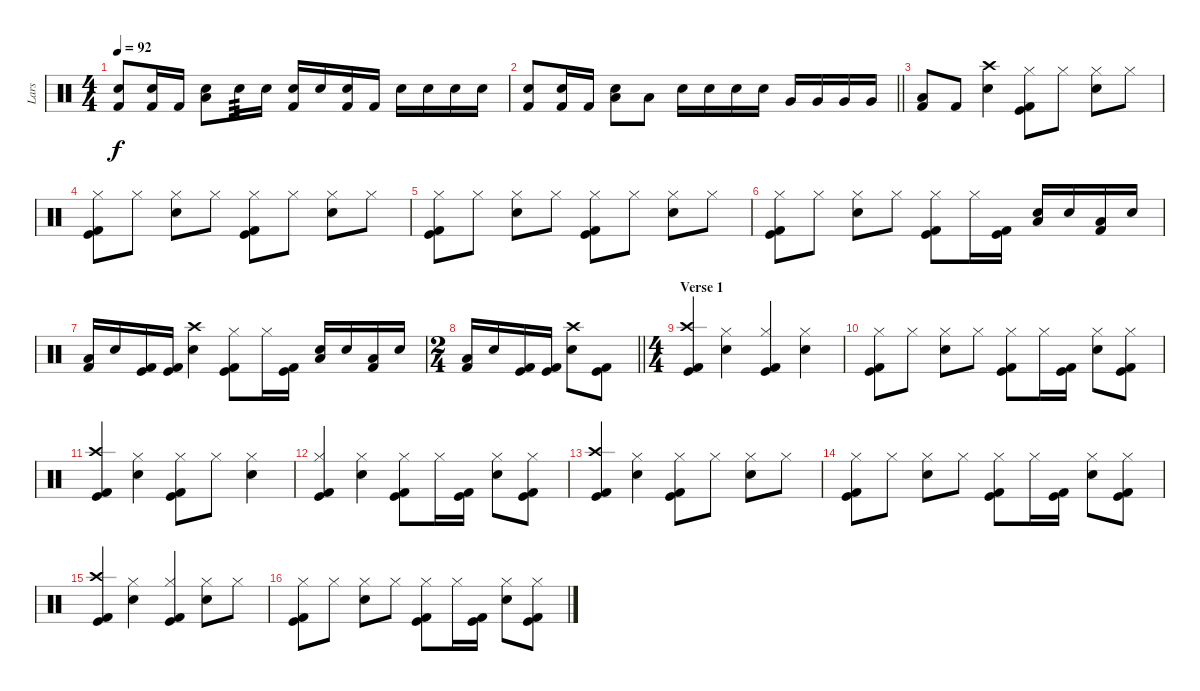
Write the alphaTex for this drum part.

\track ("Lars" "Lars") {instrument percussion}
\staff {score}
\articulation defaults
\ts (4 4)
\tempo 92
\clef neutral
\ks c
("Electric Snare (hit)" "Kick (hit) 2").8{dy f} ("Electric Snare (hit)" "Kick (hit) 2").16 "Kick (hit) 2".16 ("Electric Snare (hit)" "Low Tom (hit)").8 "Electric Snare (hit)".16{tp 3} "Electric Snare (hit)".16 ("Electric Snare (hit)" "Kick (hit) 2").16 "Electric Snare (hit)".16 ("Electric Snare (hit)" "Kick (hit) 2").16 "Kick (hit) 2".16 "Electric Snare (hit)".16 "Electric Snare (hit)".16 "Electric Snare (hit)".16 "Electric Snare (hit)".16 |
\barLineRight lightlight
("Electric Snare (hit)" "Kick (hit) 2").8 ("Electric Snare (hit)" "Kick (hit) 2").16 "Kick (hit) 2".16 ("Electric Snare (hit)" "Low Tom (hit)").8 "Low Tom (hit)".8 "Electric Snare (hit)".16 "Electric Snare (hit)".16 "Electric Snare (hit)".16 "Electric Snare (hit)".16 "Very Low Tom (hit)".16 "Very Low Tom (hit)".16 "Very Low Tom (hit)".16 "Very Low Tom (hit)".16 |
\section ("" "")
("Kick (hit) 2" "Low Tom (hit)").8 "Kick (hit) 2".8 ("Crash high (hit)" "Electric Snare (hit)").4 ("Hi-Hat (closed)" "Kick (hit)" "Kick (hit) 2").8 "Hi-Hat (closed)".8 ("Hi-Hat (closed)" "Electric Snare (hit)").8 "Hi-Hat (closed)".8 |
("Hi-Hat (closed)" "Kick (hit)" "Kick (hit) 2").8 "Hi-Hat (closed)".8 ("Hi-Hat (closed)" "Electric Snare (hit)").8 "Hi-Hat (closed)".8 ("Hi-Hat (closed)" "Kick (hit)" "Kick (hit) 2").8 "Hi-Hat (closed)".8 ("Hi-Hat (closed)" "Electric Snare (hit)").8 "Hi-Hat (closed)".8 |
("Hi-Hat (closed)" "Kick (hit)" "Kick (hit) 2").8 "Hi-Hat (closed)".8 ("Hi-Hat (closed)" "Electric Snare (hit)").8 "Hi-Hat (closed)".8 ("Hi-Hat (closed)" "Kick (hit)" "Kick (hit) 2").8 "Hi-Hat (closed)".8 ("Hi-Hat (closed)" "Electric Snare (hit)").8 "Hi-Hat (closed)".8 |
("Hi-Hat (closed)" "Kick (hit)" "Kick (hit) 2").8 "Hi-Hat (closed)".8 ("Hi-Hat (closed)" "Electric Snare (hit)").8 "Hi-Hat (closed)".8 ("Hi-Hat (closed)" "Kick (hit)" "Kick (hit) 2").8 "Hi-Hat (closed)".16 ("Kick (hit)" "Kick (hit) 2").16 ("Electric Snare (hit)" "Low Floor Tom (hit)").16 "Electric Snare (hit)".16 ("Kick (hit) 2" "Low Floor Tom (hit)").16 "Electric Snare (hit)".16 |
("Kick (hit) 2" "Low Floor Tom (hit)").16 "Electric Snare (hit)".16 ("Kick (hit)" "Kick (hit) 2").16 ("Kick (hit)" "Kick (hit) 2").16 ("Crash high (hit)" "Electric Snare (hit)").4 ("Hi-Hat (closed)" "Kick (hit)" "Kick (hit) 2").8 "Hi-Hat (closed)".16 ("Kick (hit)" "Kick (hit) 2").16 ("Electric Snare (hit)" "Low Floor Tom (hit)").16 "Electric Snare (hit)".16 ("Kick (hit) 2" "Low Floor Tom (hit)").16 "Electric Snare (hit)".16 |
\ts (2 4)
\barLineRight lightlight
("Kick (hit) 2" "Low Floor Tom (hit)").16 "Electric Snare (hit)".16 ("Kick (hit)" "Kick (hit) 2").16 ("Kick (hit)" "Kick (hit) 2").16 ("Crash high (hit)" "Electric Snare (hit)").8 ("Kick (hit)" "Kick (hit) 2").8 |
\ts (4 4)
\section ("" "Verse 1")
("Crash high (hit)" "Kick (hit)" "Kick (hit) 2").4 ("Hi-Hat (closed)" "Electric Snare (hit)").4 ("Hi-Hat (closed)" "Kick (hit)" "Kick (hit) 2").4 ("Hi-Hat (closed)" "Electric Snare (hit)").4 |
("Hi-Hat (closed)" "Kick (hit)" "Kick (hit) 2").8 "Hi-Hat (closed)".8 ("Hi-Hat (closed)" "Electric Snare (hit)").8 "Hi-Hat (closed)".8 ("Hi-Hat (closed)" "Kick (hit)" "Kick (hit) 2").8 "Hi-Hat (closed)".16 ("Kick (hit)" "Kick (hit) 2").16 ("Hi-Hat (closed)" "Electric Snare (hit)").8 ("Hi-Hat (closed)" "Kick (hit)" "Kick (hit) 2").8 |
("Crash high (hit)" "Kick (hit)" "Kick (hit) 2").4 ("Hi-Hat (closed)" "Electric Snare (hit)").4 ("Hi-Hat (closed)" "Kick (hit)" "Kick (hit) 2").8 "Hi-Hat (closed)".8 ("Hi-Hat (closed)" "Electric Snare (hit)").4 |
("Hi-Hat (closed)" "Kick (hit)" "Kick (hit) 2").4 ("Hi-Hat (closed)" "Electric Snare (hit)").4 ("Hi-Hat (closed)" "Kick (hit)" "Kick (hit) 2").8 "Hi-Hat (closed)".16 ("Kick (hit)" "Kick (hit) 2").16 ("Hi-Hat (closed)" "Electric Snare (hit)").8 ("Hi-Hat (closed)" "Kick (hit)" "Kick (hit) 2").8 |
("Crash high (hit)" "Kick (hit)" "Kick (hit) 2").4 ("Hi-Hat (closed)" "Electric Snare (hit)").4 ("Hi-Hat (closed)" "Kick (hit)" "Kick (hit) 2").8 "Hi-Hat (closed)".8 ("Hi-Hat (closed)" "Electric Snare (hit)").8 "Hi-Hat (closed)".8 |
("Hi-Hat (closed)" "Kick (hit)" "Kick (hit) 2").8 "Hi-Hat (closed)".8 ("Hi-Hat (closed)" "Electric Snare (hit)").8 "Hi-Hat (closed)".8 ("Hi-Hat (closed)" "Kick (hit)" "Kick (hit) 2").8 "Hi-Hat (closed)".16 ("Kick (hit)" "Kick (hit) 2").16 ("Hi-Hat (closed)" "Electric Snare (hit)").8 ("Hi-Hat (closed)" "Kick (hit)" "Kick (hit) 2").8 |
("Crash high (hit)" "Kick (hit)" "Kick (hit) 2").4 ("Hi-Hat (closed)" "Electric Snare (hit)").4 ("Hi-Hat (closed)" "Kick (hit)" "Kick (hit) 2").4 ("Hi-Hat (closed)" "Electric Snare (hit)").8 "Hi-Hat (closed)".8 |
("Hi-Hat (closed)" "Kick (hit)" "Kick (hit) 2").8 "Hi-Hat (closed)".8 ("Hi-Hat (closed)" "Electric Snare (hit)").8 "Hi-Hat (closed)".8 ("Hi-Hat (closed)" "Kick (hit)" "Kick (hit) 2").8 "Hi-Hat (closed)".16 ("Kick (hit)" "Kick (hit) 2").16 ("Hi-Hat (closed)" "Electric Snare (hit)").8 ("Hi-Hat (closed)" "Kick (hit)" "Kick (hit) 2").8
